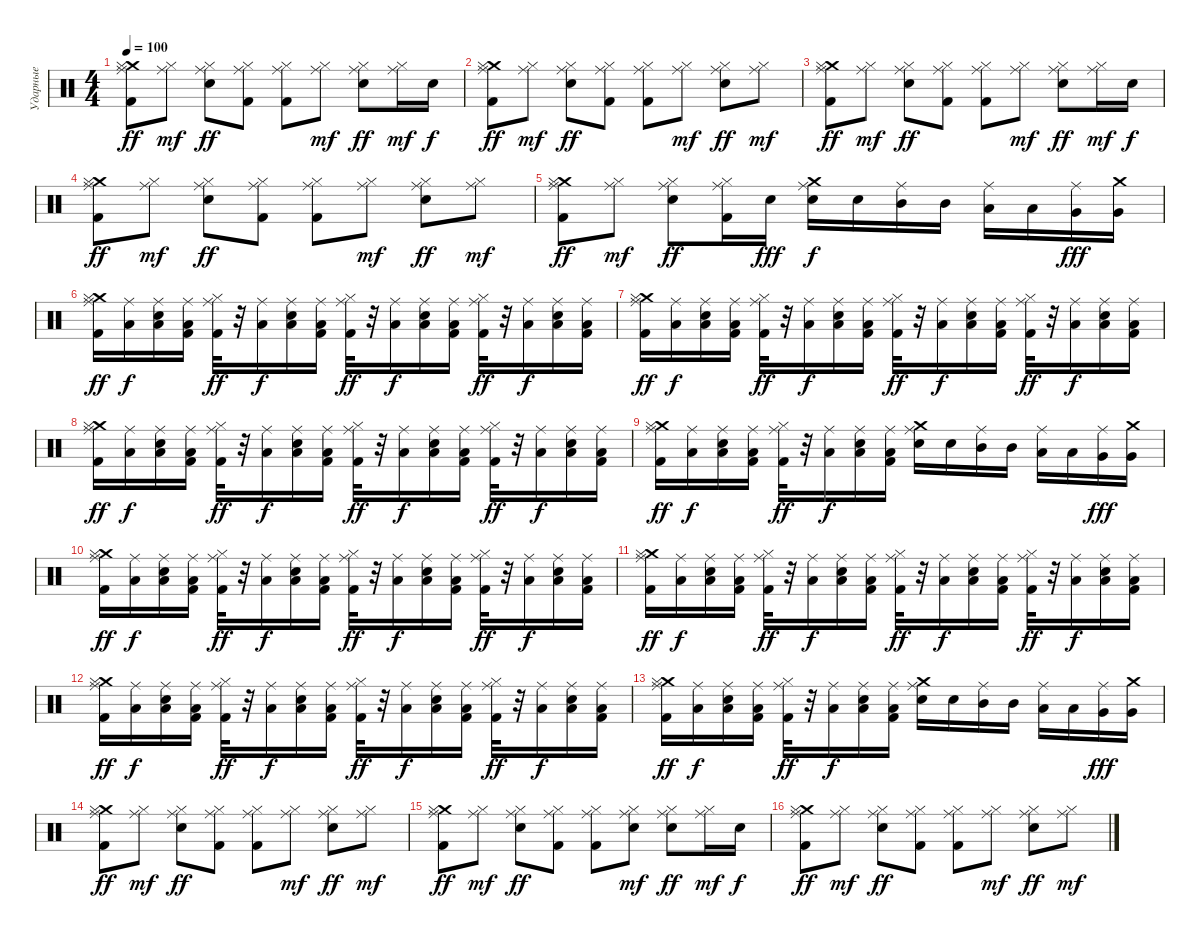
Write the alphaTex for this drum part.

\track ("Ударные" "Ударные") {instrument percussion}
\staff {score}
\articulation defaults
\ts (4 4)
\tempo 100
\clef neutral
\ks c
("Ride (middle)" "Crash medium (hit)" "Hi-Hat (closed)" "Kick (hit) 2").8{dy ff} ("Ride (middle)" "Hi-Hat (closed)").8{dy mf} ("Ride (middle)" "Hi-Hat (closed)" "Snare (hit) 2").8{dy ff} ("Ride (middle)" "Hi-Hat (closed)" "Kick (hit) 2").8 ("Ride (middle)" "Hi-Hat (closed)" "Kick (hit) 2").8 ("Ride (middle)" "Hi-Hat (closed)").8{dy mf} ("Ride (middle)" "Hi-Hat (closed)" "Snare (hit) 2").8{dy ff} ("Ride (middle)" "Hi-Hat (closed)").16{dy mf} "Electric Snare (hit)".16{dy f} |
("Ride (middle)" "Crash medium (hit)" "Hi-Hat (closed)" "Kick (hit) 2").8{dy ff} ("Ride (middle)" "Hi-Hat (closed)").8{dy mf} ("Ride (middle)" "Hi-Hat (closed)" "Snare (hit) 2").8{dy ff} ("Ride (middle)" "Hi-Hat (closed)" "Kick (hit) 2").8 ("Ride (middle)" "Hi-Hat (closed)" "Kick (hit) 2").8 ("Ride (middle)" "Hi-Hat (closed)").8{dy mf} ("Ride (middle)" "Hi-Hat (closed)" "Snare (hit) 2").8{dy ff} ("Ride (middle)" "Hi-Hat (closed)").8{dy mf} |
("Ride (middle)" "Crash medium (hit)" "Hi-Hat (closed)" "Kick (hit) 2").8{dy ff} ("Ride (middle)" "Hi-Hat (closed)").8{dy mf} ("Ride (middle)" "Hi-Hat (closed)" "Snare (hit) 2").8{dy ff} ("Ride (middle)" "Hi-Hat (closed)" "Kick (hit) 2").8 ("Ride (middle)" "Hi-Hat (closed)" "Kick (hit) 2").8 ("Ride (middle)" "Hi-Hat (closed)").8{dy mf} ("Ride (middle)" "Hi-Hat (closed)" "Snare (hit) 2").8{dy ff} ("Ride (middle)" "Hi-Hat (closed)").16{dy mf} "Electric Snare (hit)".16{dy f} |
("Ride (middle)" "Crash medium (hit)" "Hi-Hat (closed)" "Kick (hit) 2").8{dy ff} ("Ride (middle)" "Hi-Hat (closed)").8{dy mf} ("Ride (middle)" "Hi-Hat (closed)" "Snare (hit) 2").8{dy ff} ("Ride (middle)" "Hi-Hat (closed)" "Kick (hit) 2").8 ("Ride (middle)" "Hi-Hat (closed)" "Kick (hit) 2").8 ("Ride (middle)" "Hi-Hat (closed)").8{dy mf} ("Ride (middle)" "Hi-Hat (closed)" "Snare (hit) 2").8{dy ff} ("Ride (middle)" "Hi-Hat (closed)").8{dy mf} |
("Ride (middle)" "Crash medium (hit)" "Hi-Hat (closed)" "Kick (hit) 2").8{dy ff} ("Ride (middle)" "Hi-Hat (closed)").8{dy mf} ("Ride (middle)" "Hi-Hat (closed)" "Snare (hit) 2").8{dy ff} ("Ride (middle)" "Hi-Hat (closed)" "Kick (hit) 2").16 "Electric Snare (hit)".16{dy fff} ("Ride (middle)" "Crash medium (hit)" "Snare (hit) 2").16{dy f} "Snare (hit) 2".16 ("Ride (middle)" "Mid Tom (hit)").16 "Mid Tom (hit)".16 ("Ride (middle)" "Low Tom (hit)").16 "Low Tom (hit)".16 ("Ride (middle)" "Very Low Tom (hit)").16{dy fff} ("Crash medium (hit)" "Very Low Tom (hit)").16 |
("Crash medium (hit)" "Ride (middle)" "Hi-Hat (closed)" "Kick (hit) 2").16{dy ff} ("Ride (middle)" "Low Floor Tom (hit)").16{dy f} ("Ride (middle)" "Low Floor Tom (hit)" "Snare (hit) 2").16 ("Ride (middle)" "Low Floor Tom (hit)" "Kick (hit) 2").16 ("Ride (middle)" "Hi-Hat (closed)" "Kick (hit) 2").32{dy ff} r.32 ("Ride (middle)" "Low Floor Tom (hit)").16{dy f} ("Ride (middle)" "Low Floor Tom (hit)" "Snare (hit) 2").16 ("Ride (middle)" "Low Floor Tom (hit)" "Kick (hit) 2").16 ("Ride (middle)" "Hi-Hat (closed)" "Kick (hit) 2").32{dy ff} r.32 ("Ride (middle)" "Low Floor Tom (hit)").16{dy f} ("Ride (middle)" "Low Floor Tom (hit)" "Snare (hit) 2").16 ("Ride (middle)" "Low Floor Tom (hit)" "Kick (hit) 2").16 ("Ride (middle)" "Hi-Hat (closed)" "Kick (hit) 2").32{dy ff} r.32 ("Ride (middle)" "Low Floor Tom (hit)").16{dy f} ("Ride (middle)" "Low Floor Tom (hit)" "Snare (hit) 2").16 ("Ride (middle)" "Low Floor Tom (hit)" "Kick (hit) 2").16 |
("Crash medium (hit)" "Ride (middle)" "Hi-Hat (closed)" "Kick (hit) 2").16{dy ff} ("Ride (middle)" "Low Floor Tom (hit)").16{dy f} ("Ride (middle)" "Low Floor Tom (hit)" "Snare (hit) 2").16 ("Ride (middle)" "Low Floor Tom (hit)" "Kick (hit) 2").16 ("Ride (middle)" "Hi-Hat (closed)" "Kick (hit) 2").32{dy ff} r.32 ("Ride (middle)" "Low Floor Tom (hit)").16{dy f} ("Ride (middle)" "Low Floor Tom (hit)" "Snare (hit) 2").16 ("Ride (middle)" "Low Floor Tom (hit)" "Kick (hit) 2").16 ("Ride (middle)" "Hi-Hat (closed)" "Kick (hit) 2").32{dy ff} r.32 ("Ride (middle)" "Low Floor Tom (hit)").16{dy f} ("Ride (middle)" "Low Floor Tom (hit)" "Snare (hit) 2").16 ("Ride (middle)" "Low Floor Tom (hit)" "Kick (hit) 2").16 ("Ride (middle)" "Hi-Hat (closed)" "Kick (hit) 2").32{dy ff} r.32 ("Ride (middle)" "Low Floor Tom (hit)").16{dy f} ("Ride (middle)" "Low Floor Tom (hit)" "Snare (hit) 2").16 ("Ride (middle)" "Low Floor Tom (hit)" "Kick (hit) 2").16 |
("Crash medium (hit)" "Ride (middle)" "Hi-Hat (closed)" "Kick (hit) 2").16{dy ff} ("Ride (middle)" "Low Floor Tom (hit)").16{dy f} ("Ride (middle)" "Low Floor Tom (hit)" "Snare (hit) 2").16 ("Ride (middle)" "Low Floor Tom (hit)" "Kick (hit) 2").16 ("Ride (middle)" "Hi-Hat (closed)" "Kick (hit) 2").32{dy ff} r.32 ("Ride (middle)" "Low Floor Tom (hit)").16{dy f} ("Ride (middle)" "Low Floor Tom (hit)" "Snare (hit) 2").16 ("Ride (middle)" "Low Floor Tom (hit)" "Kick (hit) 2").16 ("Ride (middle)" "Hi-Hat (closed)" "Kick (hit) 2").32{dy ff} r.32 ("Ride (middle)" "Low Floor Tom (hit)").16{dy f} ("Ride (middle)" "Low Floor Tom (hit)" "Snare (hit) 2").16 ("Ride (middle)" "Low Floor Tom (hit)" "Kick (hit) 2").16 ("Ride (middle)" "Hi-Hat (closed)" "Kick (hit) 2").32{dy ff} r.32 ("Ride (middle)" "Low Floor Tom (hit)").16{dy f} ("Ride (middle)" "Low Floor Tom (hit)" "Snare (hit) 2").16 ("Ride (middle)" "Low Floor Tom (hit)" "Kick (hit) 2").16 |
("Crash medium (hit)" "Ride (middle)" "Hi-Hat (closed)" "Kick (hit) 2").16{dy ff} ("Ride (middle)" "Low Floor Tom (hit)").16{dy f} ("Ride (middle)" "Low Floor Tom (hit)" "Snare (hit) 2").16 ("Ride (middle)" "Low Floor Tom (hit)" "Kick (hit) 2").16 ("Ride (middle)" "Hi-Hat (closed)" "Kick (hit) 2").32{dy ff} r.32 ("Ride (middle)" "Low Floor Tom (hit)").16{dy f} ("Ride (middle)" "Low Floor Tom (hit)" "Snare (hit) 2").16 ("Ride (middle)" "Low Floor Tom (hit)" "Kick (hit) 2").16 ("Ride (middle)" "Crash medium (hit)" "Snare (hit) 2").16 "Snare (hit) 2".16 ("Ride (middle)" "Mid Tom (hit)").16 "Mid Tom (hit)".16 ("Ride (middle)" "Low Tom (hit)").16 "Low Tom (hit)".16 ("Ride (middle)" "Very Low Tom (hit)").16{dy fff} ("Crash medium (hit)" "Very Low Tom (hit)").16 |
("Crash medium (hit)" "Ride (middle)" "Hi-Hat (closed)" "Kick (hit) 2").16{dy ff} ("Ride (middle)" "Low Floor Tom (hit)").16{dy f} ("Ride (middle)" "Low Floor Tom (hit)" "Snare (hit) 2").16 ("Ride (middle)" "Low Floor Tom (hit)" "Kick (hit) 2").16 ("Ride (middle)" "Hi-Hat (closed)" "Kick (hit) 2").32{dy ff} r.32 ("Ride (middle)" "Low Floor Tom (hit)").16{dy f} ("Ride (middle)" "Low Floor Tom (hit)" "Snare (hit) 2").16 ("Ride (middle)" "Low Floor Tom (hit)" "Kick (hit) 2").16 ("Ride (middle)" "Hi-Hat (closed)" "Kick (hit) 2").32{dy ff} r.32 ("Ride (middle)" "Low Floor Tom (hit)").16{dy f} ("Ride (middle)" "Low Floor Tom (hit)" "Snare (hit) 2").16 ("Ride (middle)" "Low Floor Tom (hit)" "Kick (hit) 2").16 ("Ride (middle)" "Hi-Hat (closed)" "Kick (hit) 2").32{dy ff} r.32 ("Ride (middle)" "Low Floor Tom (hit)").16{dy f} ("Ride (middle)" "Low Floor Tom (hit)" "Snare (hit) 2").16 ("Ride (middle)" "Low Floor Tom (hit)" "Kick (hit) 2").16 |
("Crash medium (hit)" "Ride (middle)" "Hi-Hat (closed)" "Kick (hit) 2").16{dy ff} ("Ride (middle)" "Low Floor Tom (hit)").16{dy f} ("Ride (middle)" "Low Floor Tom (hit)" "Snare (hit) 2").16 ("Ride (middle)" "Low Floor Tom (hit)" "Kick (hit) 2").16 ("Ride (middle)" "Hi-Hat (closed)" "Kick (hit) 2").32{dy ff} r.32 ("Ride (middle)" "Low Floor Tom (hit)").16{dy f} ("Ride (middle)" "Low Floor Tom (hit)" "Snare (hit) 2").16 ("Ride (middle)" "Low Floor Tom (hit)" "Kick (hit) 2").16 ("Ride (middle)" "Hi-Hat (closed)" "Kick (hit) 2").32{dy ff} r.32 ("Ride (middle)" "Low Floor Tom (hit)").16{dy f} ("Ride (middle)" "Low Floor Tom (hit)" "Snare (hit) 2").16 ("Ride (middle)" "Low Floor Tom (hit)" "Kick (hit) 2").16 ("Ride (middle)" "Hi-Hat (closed)" "Kick (hit) 2").32{dy ff} r.32 ("Ride (middle)" "Low Floor Tom (hit)").16{dy f} ("Ride (middle)" "Low Floor Tom (hit)" "Snare (hit) 2").16 ("Ride (middle)" "Low Floor Tom (hit)" "Kick (hit) 2").16 |
("Crash medium (hit)" "Ride (middle)" "Hi-Hat (closed)" "Kick (hit) 2").16{dy ff} ("Ride (middle)" "Low Floor Tom (hit)").16{dy f} ("Ride (middle)" "Low Floor Tom (hit)" "Snare (hit) 2").16 ("Ride (middle)" "Low Floor Tom (hit)" "Kick (hit) 2").16 ("Ride (middle)" "Hi-Hat (closed)" "Kick (hit) 2").32{dy ff} r.32 ("Ride (middle)" "Low Floor Tom (hit)").16{dy f} ("Ride (middle)" "Low Floor Tom (hit)" "Snare (hit) 2").16 ("Ride (middle)" "Low Floor Tom (hit)" "Kick (hit) 2").16 ("Ride (middle)" "Hi-Hat (closed)" "Kick (hit) 2").32{dy ff} r.32 ("Ride (middle)" "Low Floor Tom (hit)").16{dy f} ("Ride (middle)" "Low Floor Tom (hit)" "Snare (hit) 2").16 ("Ride (middle)" "Low Floor Tom (hit)" "Kick (hit) 2").16 ("Ride (middle)" "Hi-Hat (closed)" "Kick (hit) 2").32{dy ff} r.32 ("Ride (middle)" "Low Floor Tom (hit)").16{dy f} ("Ride (middle)" "Low Floor Tom (hit)" "Snare (hit) 2").16 ("Ride (middle)" "Low Floor Tom (hit)" "Kick (hit) 2").16 |
("Crash medium (hit)" "Ride (middle)" "Hi-Hat (closed)" "Kick (hit) 2").16{dy ff} ("Ride (middle)" "Low Floor Tom (hit)").16{dy f} ("Ride (middle)" "Low Floor Tom (hit)" "Snare (hit) 2").16 ("Ride (middle)" "Low Floor Tom (hit)" "Kick (hit) 2").16 ("Ride (middle)" "Hi-Hat (closed)" "Kick (hit) 2").32{dy ff} r.32 ("Ride (middle)" "Low Floor Tom (hit)").16{dy f} ("Ride (middle)" "Low Floor Tom (hit)" "Snare (hit) 2").16 ("Ride (middle)" "Low Floor Tom (hit)" "Kick (hit) 2").16 ("Ride (middle)" "Crash medium (hit)" "Snare (hit) 2").16 "Snare (hit) 2".16 ("Ride (middle)" "Mid Tom (hit)").16 "Mid Tom (hit)".16 ("Ride (middle)" "Low Tom (hit)").16 "Low Tom (hit)".16 ("Ride (middle)" "Very Low Tom (hit)").16{dy fff} ("Crash medium (hit)" "Very Low Tom (hit)").16 |
("Ride (middle)" "Crash medium (hit)" "Hi-Hat (closed)" "Kick (hit) 2").8{dy ff} ("Ride (middle)" "Hi-Hat (closed)").8{dy mf} ("Ride (middle)" "Hi-Hat (closed)" "Snare (hit) 2").8{dy ff} ("Ride (middle)" "Hi-Hat (closed)" "Kick (hit) 2").8 ("Ride (middle)" "Hi-Hat (closed)" "Kick (hit) 2").8 ("Ride (middle)" "Hi-Hat (closed)").8{dy mf} ("Ride (middle)" "Hi-Hat (closed)" "Snare (hit) 2").8{dy ff} ("Ride (middle)" "Hi-Hat (closed)").8{dy mf} |
("Ride (middle)" "Crash medium (hit)" "Hi-Hat (closed)" "Kick (hit) 2").8{dy ff} ("Ride (middle)" "Hi-Hat (closed)").8{dy mf} ("Ride (middle)" "Hi-Hat (closed)" "Snare (hit) 2").8{dy ff} ("Ride (middle)" "Hi-Hat (closed)" "Kick (hit) 2").8 ("Ride (middle)" "Hi-Hat (closed)" "Kick (hit) 2").8 ("Snare (hit) 2" "Ride (middle)" "Hi-Hat (closed)").8{dy mf} ("Ride (middle)" "Hi-Hat (closed)" "Snare (hit) 2").8{dy ff} ("Ride (middle)" "Hi-Hat (closed)").16{dy mf} "Electric Snare (hit)".16{dy f} |
("Ride (middle)" "Crash medium (hit)" "Hi-Hat (closed)" "Kick (hit) 2").8{dy ff} ("Ride (middle)" "Hi-Hat (closed)").8{dy mf} ("Ride (middle)" "Hi-Hat (closed)" "Snare (hit) 2").8{dy ff} ("Ride (middle)" "Hi-Hat (closed)" "Kick (hit) 2").8 ("Ride (middle)" "Hi-Hat (closed)" "Kick (hit) 2").8 ("Ride (middle)" "Hi-Hat (closed)").8{dy mf} ("Ride (middle)" "Hi-Hat (closed)" "Snare (hit) 2").8{dy ff} ("Ride (middle)" "Hi-Hat (closed)").8{dy mf}
